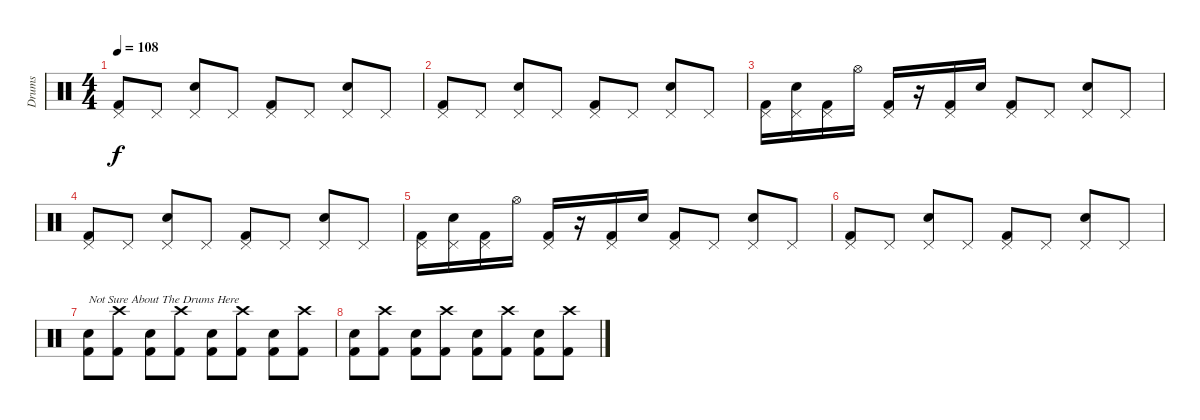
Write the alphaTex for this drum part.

\track ("Drums" "Drums") {instrument percussion}
\staff {score}
\articulation defaults
\ts (4 4)
\tempo 108
\clef neutral
\ks c
("Pedal Hi-Hat (hit)" "Kick (hit) 2").8{dy f} "Pedal Hi-Hat (hit)".8 ("Pedal Hi-Hat (hit)" "Electric Snare (hit)").8 "Pedal Hi-Hat (hit)".8 ("Pedal Hi-Hat (hit)" "Kick (hit) 2").8 "Pedal Hi-Hat (hit)".8 ("Pedal Hi-Hat (hit)" "Electric Snare (hit)").8 "Pedal Hi-Hat (hit)".8 |
("Pedal Hi-Hat (hit)" "Kick (hit) 2").8 "Pedal Hi-Hat (hit)".8 ("Pedal Hi-Hat (hit)" "Electric Snare (hit)").8 "Pedal Hi-Hat (hit)".8 ("Pedal Hi-Hat (hit)" "Kick (hit) 2").8 "Pedal Hi-Hat (hit)".8 ("Pedal Hi-Hat (hit)" "Electric Snare (hit)").8 "Pedal Hi-Hat (hit)".8 |
("Pedal Hi-Hat (hit)" "Kick (hit) 2").16 ("Pedal Hi-Hat (hit)" "Electric Snare (hit)").16 ("Pedal Hi-Hat (hit)" "Kick (hit) 2").16 "Hi-Hat (open)".16 ("Pedal Hi-Hat (hit)" "Kick (hit) 2").16 r.16 ("Pedal Hi-Hat (hit)" "Kick (hit) 2").16 "Electric Snare (hit)".16 ("Pedal Hi-Hat (hit)" "Kick (hit) 2").8 "Pedal Hi-Hat (hit)".8 ("Pedal Hi-Hat (hit)" "Electric Snare (hit)").8 "Pedal Hi-Hat (hit)".8 |
("Pedal Hi-Hat (hit)" "Kick (hit) 2").8 "Pedal Hi-Hat (hit)".8 ("Pedal Hi-Hat (hit)" "Electric Snare (hit)").8 "Pedal Hi-Hat (hit)".8 ("Pedal Hi-Hat (hit)" "Kick (hit) 2").8 "Pedal Hi-Hat (hit)".8 ("Pedal Hi-Hat (hit)" "Electric Snare (hit)").8 "Pedal Hi-Hat (hit)".8 |
("Pedal Hi-Hat (hit)" "Kick (hit) 2").16 ("Pedal Hi-Hat (hit)" "Electric Snare (hit)").16 ("Pedal Hi-Hat (hit)" "Kick (hit) 2").16 "Hi-Hat (open)".16 ("Pedal Hi-Hat (hit)" "Kick (hit) 2").16 r.16 ("Pedal Hi-Hat (hit)" "Kick (hit) 2").16 "Electric Snare (hit)".16 ("Pedal Hi-Hat (hit)" "Kick (hit) 2").8 "Pedal Hi-Hat (hit)".8 ("Pedal Hi-Hat (hit)" "Electric Snare (hit)").8 "Pedal Hi-Hat (hit)".8 |
("Pedal Hi-Hat (hit)" "Kick (hit) 2").8 "Pedal Hi-Hat (hit)".8 ("Pedal Hi-Hat (hit)" "Electric Snare (hit)").8 "Pedal Hi-Hat (hit)".8 ("Pedal Hi-Hat (hit)" "Kick (hit) 2").8 "Pedal Hi-Hat (hit)".8 ("Pedal Hi-Hat (hit)" "Electric Snare (hit)").8 "Pedal Hi-Hat (hit)".8 |
("Electric Snare (hit)" "Kick (hit) 2").8{txt "Not Sure About The Drums Here"} ("Crash high (hit)" "Kick (hit) 2").8 ("Electric Snare (hit)" "Kick (hit) 2").8 ("Crash high (hit)" "Kick (hit) 2").8 ("Electric Snare (hit)" "Kick (hit) 2").8 ("Crash high (hit)" "Kick (hit) 2").8 ("Electric Snare (hit)" "Kick (hit) 2").8 ("Crash high (hit)" "Kick (hit) 2").8 |
("Electric Snare (hit)" "Kick (hit) 2").8 ("Crash high (hit)" "Kick (hit) 2").8 ("Electric Snare (hit)" "Kick (hit) 2").8 ("Crash high (hit)" "Kick (hit) 2").8 ("Electric Snare (hit)" "Kick (hit) 2").8 ("Crash high (hit)" "Kick (hit) 2").8 ("Electric Snare (hit)" "Kick (hit) 2").8 ("Crash high (hit)" "Kick (hit) 2").8
